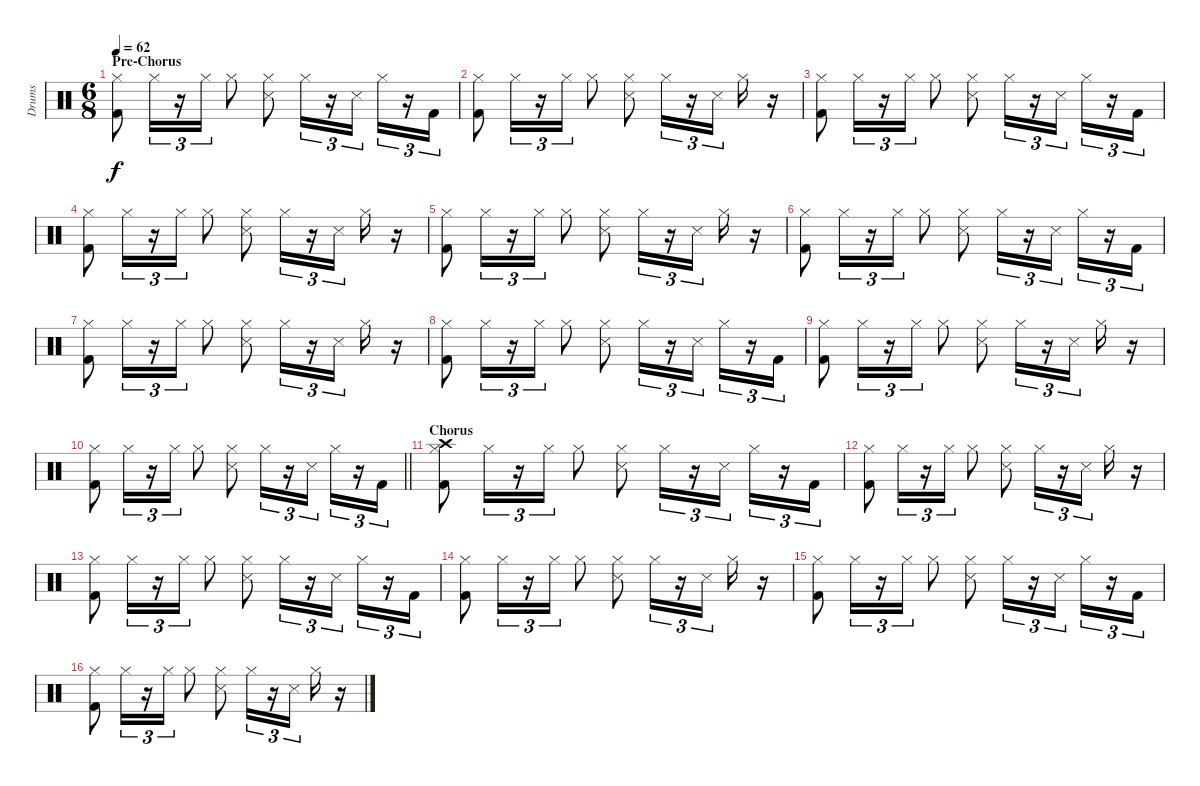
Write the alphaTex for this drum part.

\track ("Drums" "Drums") {instrument percussion}
\staff {score}
\articulation defaults
\ts (6 8)
\section ("" "Pre-Chorus")
\tempo 62
\clef neutral
\ks c
("Hi-Hat (closed)" "Kick (hit) 2").8{dy f} "Hi-Hat (closed)".16{tu (3 2)} r.16{tu (3 2)} "Hi-Hat (closed)".16{tu (3 2)} "Hi-Hat (closed)".8 ("Hi-Hat (closed)" "Snare (side stick) 3").8 "Hi-Hat (closed)".16{tu (3 2)} r.16{tu (3 2)} "Snare (side stick) 3".16{tu (3 2)} "Hi-Hat (closed)".16{tu (3 2)} r.16{tu (3 2)} "Kick (hit) 2".16{tu (3 2)} |
("Hi-Hat (closed)" "Kick (hit) 2").8 "Hi-Hat (closed)".16{tu (3 2)} r.16{tu (3 2)} "Hi-Hat (closed)".16{tu (3 2)} "Hi-Hat (closed)".8 ("Hi-Hat (closed)" "Snare (side stick) 3").8 "Hi-Hat (closed)".16{tu (3 2)} r.16{tu (3 2)} "Snare (side stick) 3".16{tu (3 2)} "Hi-Hat (closed)".16 r.16 |
("Hi-Hat (closed)" "Kick (hit) 2").8 "Hi-Hat (closed)".16{tu (3 2)} r.16{tu (3 2)} "Hi-Hat (closed)".16{tu (3 2)} "Hi-Hat (closed)".8 ("Hi-Hat (closed)" "Snare (side stick) 3").8 "Hi-Hat (closed)".16{tu (3 2)} r.16{tu (3 2)} "Snare (side stick) 3".16{tu (3 2)} "Hi-Hat (closed)".16{tu (3 2)} r.16{tu (3 2)} "Kick (hit) 2".16{tu (3 2)} |
("Hi-Hat (closed)" "Kick (hit) 2").8 "Hi-Hat (closed)".16{tu (3 2)} r.16{tu (3 2)} "Hi-Hat (closed)".16{tu (3 2)} "Hi-Hat (closed)".8 ("Hi-Hat (closed)" "Snare (side stick) 3").8 "Hi-Hat (closed)".16{tu (3 2)} r.16{tu (3 2)} "Snare (side stick) 3".16{tu (3 2)} "Hi-Hat (closed)".16 r.16 |
("Hi-Hat (closed)" "Kick (hit) 2").8 "Hi-Hat (closed)".16{tu (3 2)} r.16{tu (3 2)} "Hi-Hat (closed)".16{tu (3 2)} "Hi-Hat (closed)".8 ("Hi-Hat (closed)" "Snare (side stick) 3").8 "Hi-Hat (closed)".16{tu (3 2)} r.16{tu (3 2)} "Snare (side stick) 3".16{tu (3 2)} "Hi-Hat (closed)".16 r.16 |
("Hi-Hat (closed)" "Kick (hit) 2").8 "Hi-Hat (closed)".16{tu (3 2)} r.16{tu (3 2)} "Hi-Hat (closed)".16{tu (3 2)} "Hi-Hat (closed)".8 ("Hi-Hat (closed)" "Snare (side stick) 3").8 "Hi-Hat (closed)".16{tu (3 2)} r.16{tu (3 2)} "Snare (side stick) 3".16{tu (3 2)} "Hi-Hat (closed)".16{tu (3 2)} r.16{tu (3 2)} "Kick (hit) 2".16{tu (3 2)} |
("Hi-Hat (closed)" "Kick (hit) 2").8 "Hi-Hat (closed)".16{tu (3 2)} r.16{tu (3 2)} "Hi-Hat (closed)".16{tu (3 2)} "Hi-Hat (closed)".8 ("Hi-Hat (closed)" "Snare (side stick) 3").8 "Hi-Hat (closed)".16{tu (3 2)} r.16{tu (3 2)} "Snare (side stick) 3".16{tu (3 2)} "Hi-Hat (closed)".16 r.16 |
("Hi-Hat (closed)" "Kick (hit) 2").8 "Hi-Hat (closed)".16{tu (3 2)} r.16{tu (3 2)} "Hi-Hat (closed)".16{tu (3 2)} "Hi-Hat (closed)".8 ("Hi-Hat (closed)" "Snare (side stick) 3").8 "Hi-Hat (closed)".16{tu (3 2)} r.16{tu (3 2)} "Snare (side stick) 3".16{tu (3 2)} "Hi-Hat (closed)".16{tu (3 2)} r.16{tu (3 2)} "Kick (hit) 2".16{tu (3 2)} |
("Hi-Hat (closed)" "Kick (hit) 2").8 "Hi-Hat (closed)".16{tu (3 2)} r.16{tu (3 2)} "Hi-Hat (closed)".16{tu (3 2)} "Hi-Hat (closed)".8 ("Hi-Hat (closed)" "Snare (side stick) 3").8 "Hi-Hat (closed)".16{tu (3 2)} r.16{tu (3 2)} "Snare (side stick) 3".16{tu (3 2)} "Hi-Hat (closed)".16 r.16 |
\barLineRight lightlight
("Hi-Hat (closed)" "Kick (hit) 2").8 "Hi-Hat (closed)".16{tu (3 2)} r.16{tu (3 2)} "Hi-Hat (closed)".16{tu (3 2)} "Hi-Hat (closed)".8 ("Hi-Hat (closed)" "Snare (side stick) 3").8 "Hi-Hat (closed)".16{tu (3 2)} r.16{tu (3 2)} "Snare (side stick) 3".16{tu (3 2)} "Hi-Hat (closed)".16{tu (3 2)} r.16{tu (3 2)} "Kick (hit) 2".16{tu (3 2)} |
\section ("" "Chorus")
("Hi-Hat (closed)" "Crash high (hit)" "Kick (hit) 2").8 "Hi-Hat (closed)".16{tu (3 2)} r.16{tu (3 2)} "Hi-Hat (closed)".16{tu (3 2)} "Hi-Hat (closed)".8 ("Hi-Hat (closed)" "Snare (side stick) 3").8 "Hi-Hat (closed)".16{tu (3 2)} r.16{tu (3 2)} "Snare (side stick) 3".16{tu (3 2)} "Hi-Hat (closed)".16{tu (3 2)} r.16{tu (3 2)} "Kick (hit) 2".16{tu (3 2)} |
("Hi-Hat (closed)" "Kick (hit) 2").8 "Hi-Hat (closed)".16{tu (3 2)} r.16{tu (3 2)} "Hi-Hat (closed)".16{tu (3 2)} "Hi-Hat (closed)".8 ("Hi-Hat (closed)" "Snare (side stick) 3").8 "Hi-Hat (closed)".16{tu (3 2)} r.16{tu (3 2)} "Snare (side stick) 3".16{tu (3 2)} "Hi-Hat (closed)".16 r.16 |
("Hi-Hat (closed)" "Kick (hit) 2").8 "Hi-Hat (closed)".16{tu (3 2)} r.16{tu (3 2)} "Hi-Hat (closed)".16{tu (3 2)} "Hi-Hat (closed)".8 ("Hi-Hat (closed)" "Snare (side stick) 3").8 "Hi-Hat (closed)".16{tu (3 2)} r.16{tu (3 2)} "Snare (side stick) 3".16{tu (3 2)} "Hi-Hat (closed)".16{tu (3 2)} r.16{tu (3 2)} "Kick (hit) 2".16{tu (3 2)} |
("Hi-Hat (closed)" "Kick (hit) 2").8 "Hi-Hat (closed)".16{tu (3 2)} r.16{tu (3 2)} "Hi-Hat (closed)".16{tu (3 2)} "Hi-Hat (closed)".8 ("Hi-Hat (closed)" "Snare (side stick) 3").8 "Hi-Hat (closed)".16{tu (3 2)} r.16{tu (3 2)} "Snare (side stick) 3".16{tu (3 2)} "Hi-Hat (closed)".16 r.16 |
("Hi-Hat (closed)" "Kick (hit) 2").8 "Hi-Hat (closed)".16{tu (3 2)} r.16{tu (3 2)} "Hi-Hat (closed)".16{tu (3 2)} "Hi-Hat (closed)".8 ("Hi-Hat (closed)" "Snare (side stick) 3").8 "Hi-Hat (closed)".16{tu (3 2)} r.16{tu (3 2)} "Snare (side stick) 3".16{tu (3 2)} "Hi-Hat (closed)".16{tu (3 2)} r.16{tu (3 2)} "Kick (hit) 2".16{tu (3 2)} |
("Hi-Hat (closed)" "Kick (hit) 2").8 "Hi-Hat (closed)".16{tu (3 2)} r.16{tu (3 2)} "Hi-Hat (closed)".16{tu (3 2)} "Hi-Hat (closed)".8 ("Hi-Hat (closed)" "Snare (side stick) 3").8 "Hi-Hat (closed)".16{tu (3 2)} r.16{tu (3 2)} "Snare (side stick) 3".16{tu (3 2)} "Hi-Hat (closed)".16 r.16
